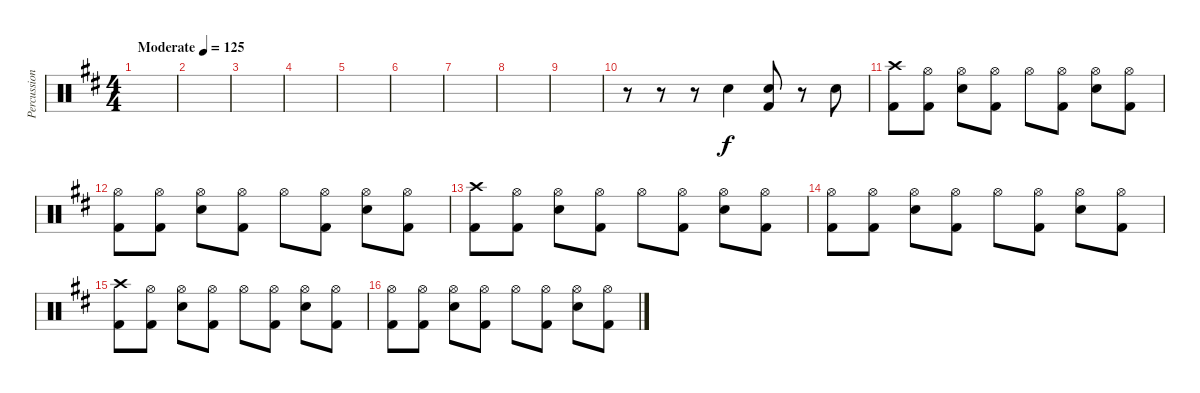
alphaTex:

\track ("Percussion" "Percussion") {instrument percussion}
\staff {score}
\articulation defaults
\ts (4 4)
\tempo (125 "Moderate")
\clef neutral
\ks d
|
|
|
|
|
|
|
|
|
r.8 r.8 r.8 "Electric Snare (hit)".4 ("Electric Snare (hit)" "Kick (hit) 2").8 r.8 "Electric Snare (hit)".8 |
("Crash high (hit)" "Kick (hit) 2").8 ("Hi-Hat (open)" "Kick (hit) 2").8 ("Hi-Hat (open)" "Electric Snare (hit)").8 ("Hi-Hat (open)" "Kick (hit) 2").8 "Hi-Hat (open)".8 ("Hi-Hat (open)" "Kick (hit) 2").8 ("Hi-Hat (open)" "Electric Snare (hit)").8 ("Hi-Hat (open)" "Kick (hit) 2").8 |
("Hi-Hat (open)" "Kick (hit) 2").8 ("Hi-Hat (open)" "Kick (hit) 2").8 ("Hi-Hat (open)" "Electric Snare (hit)").8 ("Hi-Hat (open)" "Kick (hit) 2").8 "Hi-Hat (open)".8 ("Hi-Hat (open)" "Kick (hit) 2").8 ("Hi-Hat (open)" "Electric Snare (hit)").8 ("Hi-Hat (open)" "Kick (hit) 2").8 |
("Crash high (hit)" "Kick (hit) 2").8 ("Hi-Hat (open)" "Kick (hit) 2").8 ("Hi-Hat (open)" "Electric Snare (hit)").8 ("Hi-Hat (open)" "Kick (hit) 2").8 "Hi-Hat (open)".8 ("Hi-Hat (open)" "Kick (hit) 2").8 ("Hi-Hat (open)" "Electric Snare (hit)").8 ("Hi-Hat (open)" "Kick (hit) 2").8 |
("Hi-Hat (open)" "Kick (hit) 2").8 ("Hi-Hat (open)" "Kick (hit) 2").8 ("Hi-Hat (open)" "Electric Snare (hit)").8 ("Hi-Hat (open)" "Kick (hit) 2").8 "Hi-Hat (open)".8 ("Hi-Hat (open)" "Kick (hit) 2").8 ("Hi-Hat (open)" "Electric Snare (hit)").8 ("Hi-Hat (open)" "Kick (hit) 2").8 |
("Crash high (hit)" "Kick (hit) 2").8 ("Hi-Hat (open)" "Kick (hit) 2").8 ("Hi-Hat (open)" "Electric Snare (hit)").8 ("Hi-Hat (open)" "Kick (hit) 2").8 "Hi-Hat (open)".8 ("Hi-Hat (open)" "Kick (hit) 2").8 ("Hi-Hat (open)" "Electric Snare (hit)").8 ("Hi-Hat (open)" "Kick (hit) 2").8 |
("Hi-Hat (open)" "Kick (hit) 2").8 ("Hi-Hat (open)" "Kick (hit) 2").8 ("Hi-Hat (open)" "Electric Snare (hit)").8 ("Hi-Hat (open)" "Kick (hit) 2").8 "Hi-Hat (open)".8 ("Hi-Hat (open)" "Kick (hit) 2").8 ("Hi-Hat (open)" "Electric Snare (hit)").8 ("Hi-Hat (open)" "Kick (hit) 2").8
